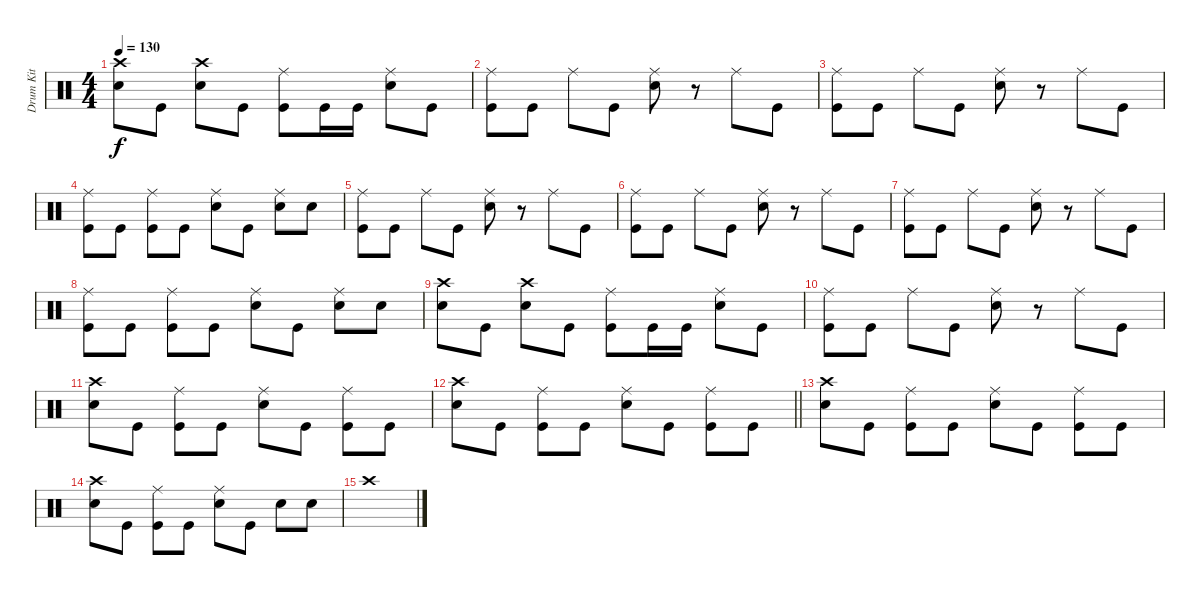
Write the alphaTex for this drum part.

\track ("Drum Kit" "Drum Kit") {instrument percussion}
\staff {score}
\articulation defaults
\ts (4 4)
\tempo 130
\clef neutral
\ks c
("Crash high (hit)" "Snare (hit) 2").8{dy f} "Kick (hit)".8 ("Crash high (hit)" "Snare (hit) 2").8 "Kick (hit)".8 ("Ride (middle)" "Kick (hit)").8 "Kick (hit)".16 "Kick (hit)".16 ("Ride (middle)" "Snare (hit) 2").8 "Kick (hit)".8 |
("Ride (middle)" "Kick (hit)").8 "Kick (hit)".8 "Ride (middle)".8 "Kick (hit)".8 ("Ride (middle)" "Snare (hit) 2").8 r.8 "Ride (middle)".8 "Kick (hit)".8 |
("Ride (middle)" "Kick (hit)").8 "Kick (hit)".8 "Ride (middle)".8 "Kick (hit)".8 ("Ride (middle)" "Snare (hit) 2").8 r.8 "Ride (middle)".8 "Kick (hit)".8 |
("Ride (middle)" "Kick (hit)").8 "Kick (hit)".8 ("Ride (middle)" "Kick (hit)").8 "Kick (hit)".8 ("Ride (middle)" "Snare (hit) 2").8 "Kick (hit)".8 ("Ride (middle)" "Snare (hit) 2").8 "Snare (hit) 2".8 |
("Ride (middle)" "Kick (hit)").8 "Kick (hit)".8 "Ride (middle)".8 "Kick (hit)".8 ("Ride (middle)" "Snare (hit) 2").8 r.8 "Ride (middle)".8 "Kick (hit)".8 |
("Ride (middle)" "Kick (hit)").8 "Kick (hit)".8 "Ride (middle)".8 "Kick (hit)".8 ("Ride (middle)" "Snare (hit) 2").8 r.8 "Ride (middle)".8 "Kick (hit)".8 |
("Ride (middle)" "Kick (hit)").8 "Kick (hit)".8 "Ride (middle)".8 "Kick (hit)".8 ("Ride (middle)" "Snare (hit) 2").8 r.8 "Ride (middle)".8 "Kick (hit)".8 |
("Ride (middle)" "Kick (hit)").8 "Kick (hit)".8 ("Ride (middle)" "Kick (hit)").8 "Kick (hit)".8 ("Ride (middle)" "Snare (hit) 2").8 "Kick (hit)".8 ("Ride (middle)" "Snare (hit) 2").8 "Snare (hit) 2".8 |
("Crash high (hit)" "Snare (hit) 2").8 "Kick (hit)".8 ("Crash high (hit)" "Snare (hit) 2").8 "Kick (hit)".8 ("Ride (middle)" "Kick (hit)").8 "Kick (hit)".16 "Kick (hit)".16 ("Ride (middle)" "Snare (hit) 2").8 "Kick (hit)".8 |
("Ride (middle)" "Kick (hit)").8 "Kick (hit)".8 "Ride (middle)".8 "Kick (hit)".8 ("Ride (middle)" "Snare (hit) 2").8 r.8 "Ride (middle)".8 "Kick (hit)".8 |
("Crash high (hit)" "Snare (hit) 2").8 "Kick (hit)".8 ("Ride (middle)" "Kick (hit)").8 "Kick (hit)".8 ("Ride (middle)" "Snare (hit) 2").8 "Kick (hit)".8 ("Ride (middle)" "Kick (hit)").8 "Kick (hit)".8 |
\barLineRight lightlight
("Crash high (hit)" "Snare (hit) 2").8 "Kick (hit)".8 ("Ride (middle)" "Kick (hit)").8 "Kick (hit)".8 ("Ride (middle)" "Snare (hit) 2").8 "Kick (hit)".8 ("Ride (middle)" "Kick (hit)").8 "Kick (hit)".8 |
("Crash high (hit)" "Snare (hit) 2").8 "Kick (hit)".8 ("Ride (middle)" "Kick (hit)").8 "Kick (hit)".8 ("Ride (middle)" "Snare (hit) 2").8 "Kick (hit)".8 ("Ride (middle)" "Kick (hit)").8 "Kick (hit)".8 |
("Crash high (hit)" "Snare (hit) 2").8 "Kick (hit)".8 ("Ride (middle)" "Kick (hit)").8 "Kick (hit)".8 ("Ride (middle)" "Snare (hit) 2").8 "Kick (hit)".8 "Snare (hit) 2".8 "Snare (hit) 2".8 |
"Crash high (hit)".1
